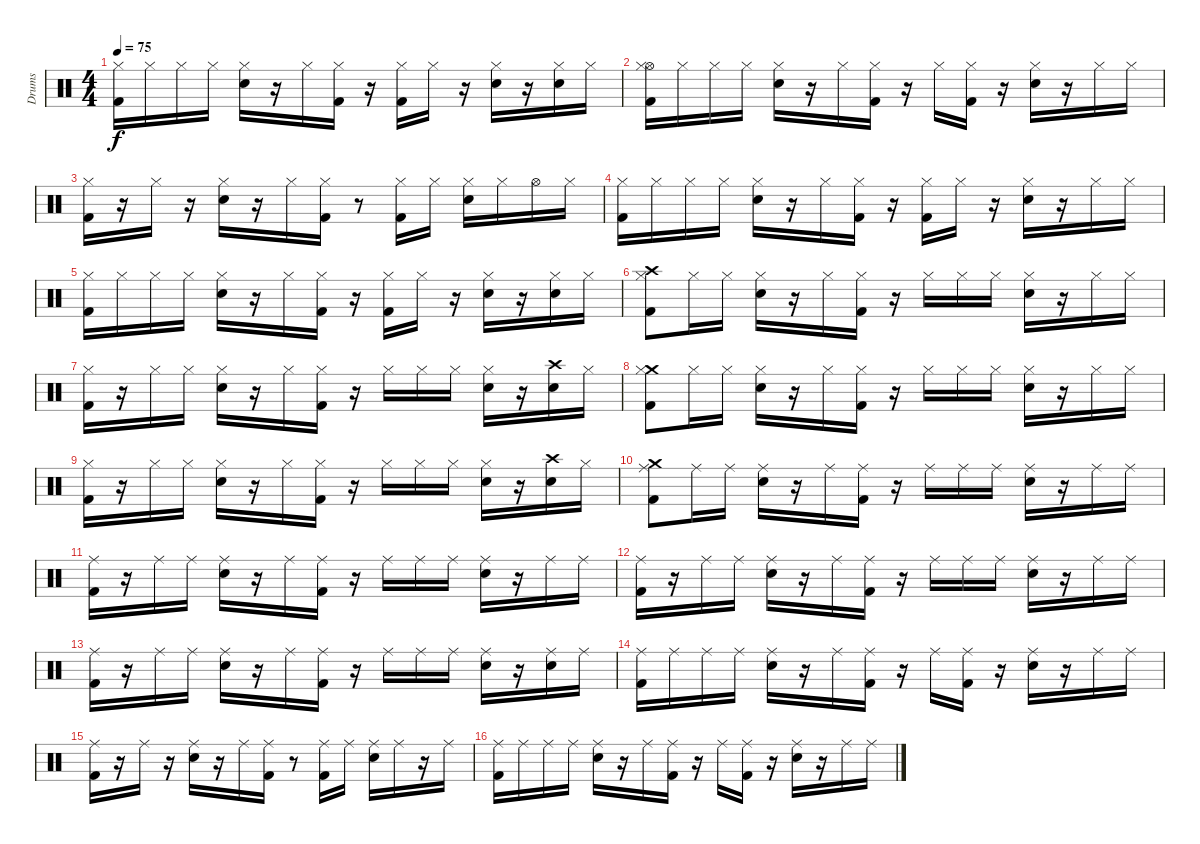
\track ("Drums" "Drums") {instrument percussion}
\staff {score}
\articulation defaults
\ts (4 4)
\tempo 75
\clef neutral
\ks c
("Hi-Hat (closed)" "Kick (hit) 2").16{dy f} "Hi-Hat (closed)".16 "Hi-Hat (closed)".16 "Hi-Hat (closed)".16 ("Hi-Hat (closed)" "Snare (hit) 2").16 r.16 "Hi-Hat (closed)".16 ("Kick (hit) 2" "Hi-Hat (closed)").16 r.16 ("Hi-Hat (closed)" "Kick (hit) 2").16 "Hi-Hat (closed)".16 r.16 ("Snare (hit) 2" "Hi-Hat (closed)").16 r.16 ("Snare (hit) 2" "Hi-Hat (closed)").16 "Hi-Hat (closed)".16 |
("Kick (hit) 2" "Hi-Hat (open)" "Hi-Hat (closed)").16 "Hi-Hat (closed)".16 "Hi-Hat (closed)".16 "Hi-Hat (closed)".16 ("Hi-Hat (closed)" "Snare (hit) 2").16 r.16 "Hi-Hat (closed)".16 ("Kick (hit) 2" "Hi-Hat (closed)").16 r.16 "Hi-Hat (closed)".16 ("Kick (hit) 2" "Hi-Hat (closed)").16 r.16 ("Hi-Hat (closed)" "Snare (hit) 2").16 r.16 "Hi-Hat (closed)".16 "Hi-Hat (closed)".16 |
("Kick (hit) 2" "Hi-Hat (closed)").16 r.16 "Hi-Hat (closed)".16 r.16 ("Snare (hit) 2" "Hi-Hat (closed)").16 r.16 "Hi-Hat (closed)".16 ("Hi-Hat (closed)" "Kick (hit) 2").16 r.8 ("Hi-Hat (closed)" "Kick (hit) 2").16 "Hi-Hat (closed)".16 ("Snare (hit) 2" "Hi-Hat (closed)").16 "Hi-Hat (closed)".16 "Hi-Hat (open)".16 "Hi-Hat (closed)".16 |
("Hi-Hat (closed)" "Kick (hit) 2").16 "Hi-Hat (closed)".16 "Hi-Hat (closed)".16 "Hi-Hat (closed)".16 ("Snare (hit) 2" "Hi-Hat (closed)").16 r.16 "Hi-Hat (closed)".16 ("Hi-Hat (closed)" "Kick (hit) 2").16 r.16 ("Hi-Hat (closed)" "Kick (hit) 2").16 "Hi-Hat (closed)".16 r.16 ("Snare (hit) 2" "Hi-Hat (closed)").16 r.16 "Hi-Hat (closed)".16 "Hi-Hat (closed)".16 |
("Hi-Hat (closed)" "Kick (hit) 2").16 "Hi-Hat (closed)".16 "Hi-Hat (closed)".16 "Hi-Hat (closed)".16 ("Hi-Hat (closed)" "Snare (hit) 2").16 r.16 "Hi-Hat (closed)".16 ("Kick (hit) 2" "Hi-Hat (closed)").16 r.16 ("Hi-Hat (closed)" "Kick (hit) 2").16 "Hi-Hat (closed)".16 r.16 ("Snare (hit) 2" "Hi-Hat (closed)").16 r.16 ("Snare (hit) 2" "Hi-Hat (closed)").16 "Hi-Hat (closed)".16 |
("Crash high (hit)" "Kick (hit) 2" "Hi-Hat (closed)").8 "Hi-Hat (closed)".16 "Hi-Hat (closed)".16 ("Snare (hit) 2" "Hi-Hat (closed)").16 r.16 "Hi-Hat (closed)".16 ("Hi-Hat (closed)" "Kick (hit) 2").16 r.16 "Hi-Hat (closed)".16 "Hi-Hat (closed)".16 "Hi-Hat (closed)".16 ("Snare (hit) 2" "Hi-Hat (closed)").16 r.16 "Hi-Hat (closed)".16 "Hi-Hat (closed)".16 |
("Hi-Hat (closed)" "Kick (hit) 2").16 r.16 "Hi-Hat (closed)".16 "Hi-Hat (closed)".16 ("Hi-Hat (closed)" "Snare (hit) 2").16 r.16 "Hi-Hat (closed)".16 ("Kick (hit) 2" "Hi-Hat (closed)").16 r.16 "Hi-Hat (closed)".16 "Hi-Hat (closed)".16 "Hi-Hat (closed)".16 ("Hi-Hat (closed)" "Snare (hit) 2").16 r.16 ("Crash high (hit)" "Snare (hit) 2").16 "Hi-Hat (closed)".16 |
("Crash medium (hit)" "Kick (hit) 2" "Hi-Hat (closed)").8 "Hi-Hat (closed)".16 "Hi-Hat (closed)".16 ("Snare (hit) 2" "Hi-Hat (closed)").16 r.16 "Hi-Hat (closed)".16 ("Hi-Hat (closed)" "Kick (hit) 2").16 r.16 "Hi-Hat (closed)".16 "Hi-Hat (closed)".16 "Hi-Hat (closed)".16 ("Hi-Hat (closed)" "Snare (hit) 2").16 r.16 "Hi-Hat (closed)".16 "Hi-Hat (closed)".16 |
("Hi-Hat (closed)" "Kick (hit) 2").16 r.16 "Hi-Hat (closed)".16 "Hi-Hat (closed)".16 ("Hi-Hat (closed)" "Snare (hit) 2").16 r.16 "Hi-Hat (closed)".16 ("Kick (hit) 2" "Hi-Hat (closed)").16 r.16 "Hi-Hat (closed)".16 "Hi-Hat (closed)".16 "Hi-Hat (closed)".16 ("Hi-Hat (closed)" "Snare (hit) 2").16 r.16 ("Crash high (hit)" "Snare (hit) 2").16 "Hi-Hat (closed)".16 |
("Crash medium (hit)" "Ride (middle)" "Kick (hit) 2").8 "Ride (middle)".16 "Ride (middle)".16 ("Snare (hit) 2" "Ride (middle)").16 r.16 "Ride (middle)".16 ("Ride (middle)" "Kick (hit) 2").16 r.16 "Ride (middle)".16 "Ride (middle)".16 "Ride (middle)".16 ("Ride (middle)" "Snare (hit) 2").16 r.16 "Ride (middle)".16 "Ride (middle)".16 |
("Kick (hit) 2" "Ride (middle)").16 r.16 "Ride (middle)".16 "Ride (middle)".16 ("Snare (hit) 2" "Ride (middle)").16 r.16 "Ride (middle)".16 ("Ride (middle)" "Kick (hit) 2").16 r.16 "Ride (middle)".16 "Ride (middle)".16 "Ride (middle)".16 ("Ride (middle)" "Snare (hit) 2").16 r.16 "Ride (middle)".16 "Ride (middle)".16 |
("Ride (middle)" "Kick (hit) 2").16 r.16 "Ride (middle)".16 "Ride (middle)".16 ("Snare (hit) 2" "Ride (middle)").16 r.16 "Ride (middle)".16 ("Kick (hit) 2" "Ride (middle)").16 r.16 "Ride (middle)".16 "Ride (middle)".16 "Ride (middle)".16 ("Snare (hit) 2" "Ride (middle)").16 r.16 "Ride (middle)".16 "Ride (middle)".16 |
("Ride (middle)" "Kick (hit) 2").16 r.16 "Ride (middle)".16 "Ride (middle)".16 ("Snare (hit) 2" "Ride (middle)").16 r.16 "Ride (middle)".16 ("Kick (hit) 2" "Ride (middle)").16 r.16 "Ride (middle)".16 "Ride (middle)".16 "Ride (middle)".16 ("Snare (hit) 2" "Ride (middle)").16 r.16 ("Ride (middle)" "Snare (hit) 2").16 "Ride (middle)".16 |
("Kick (hit) 2" "Ride (middle)").16 "Ride (middle)".16 "Ride (middle)".16 "Ride (middle)".16 ("Snare (hit) 2" "Ride (middle)").16 r.16 "Ride (middle)".16 ("Ride (middle)" "Kick (hit) 2").16 r.16 "Ride (middle)".16 ("Ride (middle)" "Kick (hit) 2").16 r.16 ("Snare (hit) 2" "Ride (middle)").16 r.16 "Ride (middle)".16 "Ride (middle)".16 |
("Kick (hit) 2" "Ride (middle)").16 r.16 "Ride (middle)".16 r.16 ("Ride (middle)" "Snare (hit) 2").16 r.16 "Ride (middle)".16 ("Ride (middle)" "Kick (hit) 2").16 r.8 ("Ride (middle)" "Kick (hit) 2").16 "Ride (middle)".16 ("Snare (hit) 2" "Ride (middle)").16 "Ride (middle)".16 r.16 "Ride (middle)".16 |
("Kick (hit) 2" "Ride (middle)").16 "Ride (middle)".16 "Ride (middle)".16 "Ride (middle)".16 ("Snare (hit) 2" "Ride (middle)").16 r.16 "Ride (middle)".16 ("Ride (middle)" "Kick (hit) 2").16 r.16 "Ride (middle)".16 ("Ride (middle)" "Kick (hit) 2").16 r.16 ("Snare (hit) 2" "Ride (middle)").16 r.16 "Ride (middle)".16 "Ride (middle)".16
